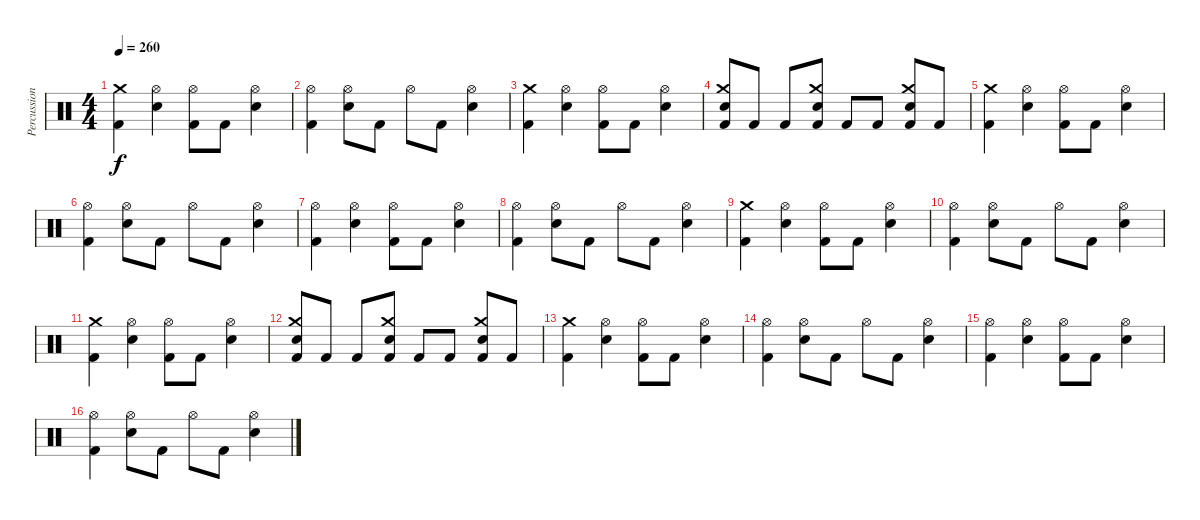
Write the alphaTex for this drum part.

\track ("Percussion" "Percussion") {instrument percussion}
\staff {score}
\articulation defaults
\ts (4 4)
\tempo 260
\clef neutral
\ks c
("Kick (hit) 2" "Crash medium (hit)").4{dy f} ("Electric Snare (hit)" "Hi-Hat (open)").4 ("Kick (hit) 2" "Hi-Hat (open)").8 "Kick (hit) 2".8 ("Electric Snare (hit)" "Hi-Hat (open)").4 |
("Kick (hit) 2" "Hi-Hat (open)").4 ("Electric Snare (hit)" "Hi-Hat (open)").8 "Kick (hit) 2".8 "Hi-Hat (open)".8 "Kick (hit) 2".8 ("Electric Snare (hit)" "Hi-Hat (open)").4 |
("Kick (hit) 2" "Crash medium (hit)").4 ("Electric Snare (hit)" "Hi-Hat (open)").4 ("Kick (hit) 2" "Hi-Hat (open)").8 "Kick (hit) 2".8 ("Electric Snare (hit)" "Hi-Hat (open)").4 |
("Kick (hit) 2" "Electric Snare (hit)" "Crash medium (hit)").8 "Kick (hit) 2".8 "Kick (hit) 2".8 ("Kick (hit) 2" "Electric Snare (hit)" "Crash medium (hit)").8 "Kick (hit) 2".8 "Kick (hit) 2".8 ("Kick (hit) 2" "Electric Snare (hit)" "Crash medium (hit)").8 "Kick (hit) 2".8 |
("Kick (hit) 2" "Crash medium (hit)").4 ("Electric Snare (hit)" "Hi-Hat (open)").4 ("Kick (hit) 2" "Hi-Hat (open)").8 "Kick (hit) 2".8 ("Electric Snare (hit)" "Hi-Hat (open)").4 |
("Kick (hit) 2" "Hi-Hat (open)").4 ("Electric Snare (hit)" "Hi-Hat (open)").8 "Kick (hit) 2".8 "Hi-Hat (open)".8 "Kick (hit) 2".8 ("Electric Snare (hit)" "Hi-Hat (open)").4 |
("Kick (hit) 2" "Hi-Hat (open)").4 ("Electric Snare (hit)" "Hi-Hat (open)").4 ("Kick (hit) 2" "Hi-Hat (open)").8 "Kick (hit) 2".8 ("Electric Snare (hit)" "Hi-Hat (open)").4 |
("Kick (hit) 2" "Hi-Hat (open)").4 ("Electric Snare (hit)" "Hi-Hat (open)").8 "Kick (hit) 2".8 "Hi-Hat (open)".8 "Kick (hit) 2".8 ("Electric Snare (hit)" "Hi-Hat (open)").4 |
("Kick (hit) 2" "Crash medium (hit)").4 ("Electric Snare (hit)" "Hi-Hat (open)").4 ("Kick (hit) 2" "Hi-Hat (open)").8 "Kick (hit) 2".8 ("Electric Snare (hit)" "Hi-Hat (open)").4 |
("Kick (hit) 2" "Hi-Hat (open)").4 ("Electric Snare (hit)" "Hi-Hat (open)").8 "Kick (hit) 2".8 "Hi-Hat (open)".8 "Kick (hit) 2".8 ("Electric Snare (hit)" "Hi-Hat (open)").4 |
("Kick (hit) 2" "Crash medium (hit)").4 ("Electric Snare (hit)" "Hi-Hat (open)").4 ("Kick (hit) 2" "Hi-Hat (open)").8 "Kick (hit) 2".8 ("Electric Snare (hit)" "Hi-Hat (open)").4 |
("Kick (hit) 2" "Electric Snare (hit)" "Crash medium (hit)").8 "Kick (hit) 2".8 "Kick (hit) 2".8 ("Kick (hit) 2" "Electric Snare (hit)" "Crash medium (hit)").8 "Kick (hit) 2".8 "Kick (hit) 2".8 ("Kick (hit) 2" "Electric Snare (hit)" "Crash medium (hit)").8 "Kick (hit) 2".8 |
("Kick (hit) 2" "Crash medium (hit)").4 ("Electric Snare (hit)" "Hi-Hat (open)").4 ("Kick (hit) 2" "Hi-Hat (open)").8 "Kick (hit) 2".8 ("Electric Snare (hit)" "Hi-Hat (open)").4 |
("Kick (hit) 2" "Hi-Hat (open)").4 ("Electric Snare (hit)" "Hi-Hat (open)").8 "Kick (hit) 2".8 "Hi-Hat (open)".8 "Kick (hit) 2".8 ("Electric Snare (hit)" "Hi-Hat (open)").4 |
("Kick (hit) 2" "Hi-Hat (open)").4 ("Electric Snare (hit)" "Hi-Hat (open)").4 ("Kick (hit) 2" "Hi-Hat (open)").8 "Kick (hit) 2".8 ("Electric Snare (hit)" "Hi-Hat (open)").4 |
("Kick (hit) 2" "Hi-Hat (open)").4 ("Electric Snare (hit)" "Hi-Hat (open)").8 "Kick (hit) 2".8 "Hi-Hat (open)".8 "Kick (hit) 2".8 ("Electric Snare (hit)" "Hi-Hat (open)").4
